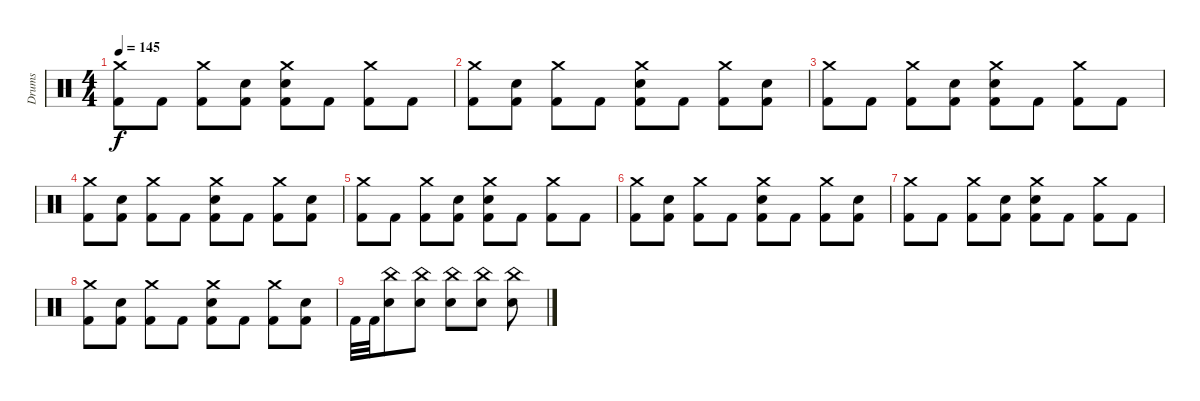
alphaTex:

\track ("Drums" "Drums") {instrument percussion}
\staff {score}
\articulation defaults
\ts (4 4)
\tempo 145
\clef neutral
\ks c
("Crash medium (hit)" "Kick (hit) 2").8{dy f} "Kick (hit) 2".8 ("Crash medium (hit)" "Kick (hit) 2").8 ("Snare (hit) 2" "Kick (hit) 2").8 ("Crash medium (hit)" "Snare (hit) 2" "Kick (hit) 2").8 "Kick (hit) 2".8 ("Crash medium (hit)" "Kick (hit) 2").8 "Kick (hit) 2".8 |
("Crash medium (hit)" "Kick (hit) 2").8 ("Snare (hit) 2" "Kick (hit) 2").8 ("Crash medium (hit)" "Kick (hit) 2").8 "Kick (hit) 2".8 ("Crash medium (hit)" "Snare (hit) 2" "Kick (hit) 2").8 "Kick (hit) 2".8 ("Crash medium (hit)" "Kick (hit) 2").8 ("Snare (hit) 2" "Kick (hit) 2").8 |
("Crash medium (hit)" "Kick (hit) 2").8 "Kick (hit) 2".8 ("Crash medium (hit)" "Kick (hit) 2").8 ("Snare (hit) 2" "Kick (hit) 2").8 ("Crash medium (hit)" "Snare (hit) 2" "Kick (hit) 2").8 "Kick (hit) 2".8 ("Crash medium (hit)" "Kick (hit) 2").8 "Kick (hit) 2".8 |
("Crash medium (hit)" "Kick (hit) 2").8 ("Snare (hit) 2" "Kick (hit) 2").8 ("Crash medium (hit)" "Kick (hit) 2").8 "Kick (hit) 2".8 ("Crash medium (hit)" "Snare (hit) 2" "Kick (hit) 2").8 "Kick (hit) 2".8 ("Crash medium (hit)" "Kick (hit) 2").8 ("Snare (hit) 2" "Kick (hit) 2").8 |
("Crash medium (hit)" "Kick (hit) 2").8 "Kick (hit) 2".8 ("Crash medium (hit)" "Kick (hit) 2").8 ("Snare (hit) 2" "Kick (hit) 2").8 ("Crash medium (hit)" "Snare (hit) 2" "Kick (hit) 2").8 "Kick (hit) 2".8 ("Crash medium (hit)" "Kick (hit) 2").8 "Kick (hit) 2".8 |
("Crash medium (hit)" "Kick (hit) 2").8 ("Snare (hit) 2" "Kick (hit) 2").8 ("Crash medium (hit)" "Kick (hit) 2").8 "Kick (hit) 2".8 ("Crash medium (hit)" "Snare (hit) 2" "Kick (hit) 2").8 "Kick (hit) 2".8 ("Crash medium (hit)" "Kick (hit) 2").8 ("Snare (hit) 2" "Kick (hit) 2").8 |
("Crash medium (hit)" "Kick (hit) 2").8 "Kick (hit) 2".8 ("Crash medium (hit)" "Kick (hit) 2").8 ("Snare (hit) 2" "Kick (hit) 2").8 ("Crash medium (hit)" "Snare (hit) 2" "Kick (hit) 2").8 "Kick (hit) 2".8 ("Crash medium (hit)" "Kick (hit) 2").8 "Kick (hit) 2".8 |
("Crash medium (hit)" "Kick (hit) 2").8 ("Snare (hit) 2" "Kick (hit) 2").8 ("Crash medium (hit)" "Kick (hit) 2").8 "Kick (hit) 2".8 ("Crash medium (hit)" "Snare (hit) 2" "Kick (hit) 2").8 "Kick (hit) 2".8 ("Crash medium (hit)" "Kick (hit) 2").8 ("Snare (hit) 2" "Kick (hit) 2").8 |
"Kick (hit) 2".32 "Kick (hit) 2".32 ("China (hit)" "Snare (hit) 2").8 ("China (hit)" "Snare (hit) 2").8 ("China (hit)" "Snare (hit) 2").8 ("China (hit)" "Snare (hit) 2").8 ("China (hit)" "Snare (hit) 2").8
